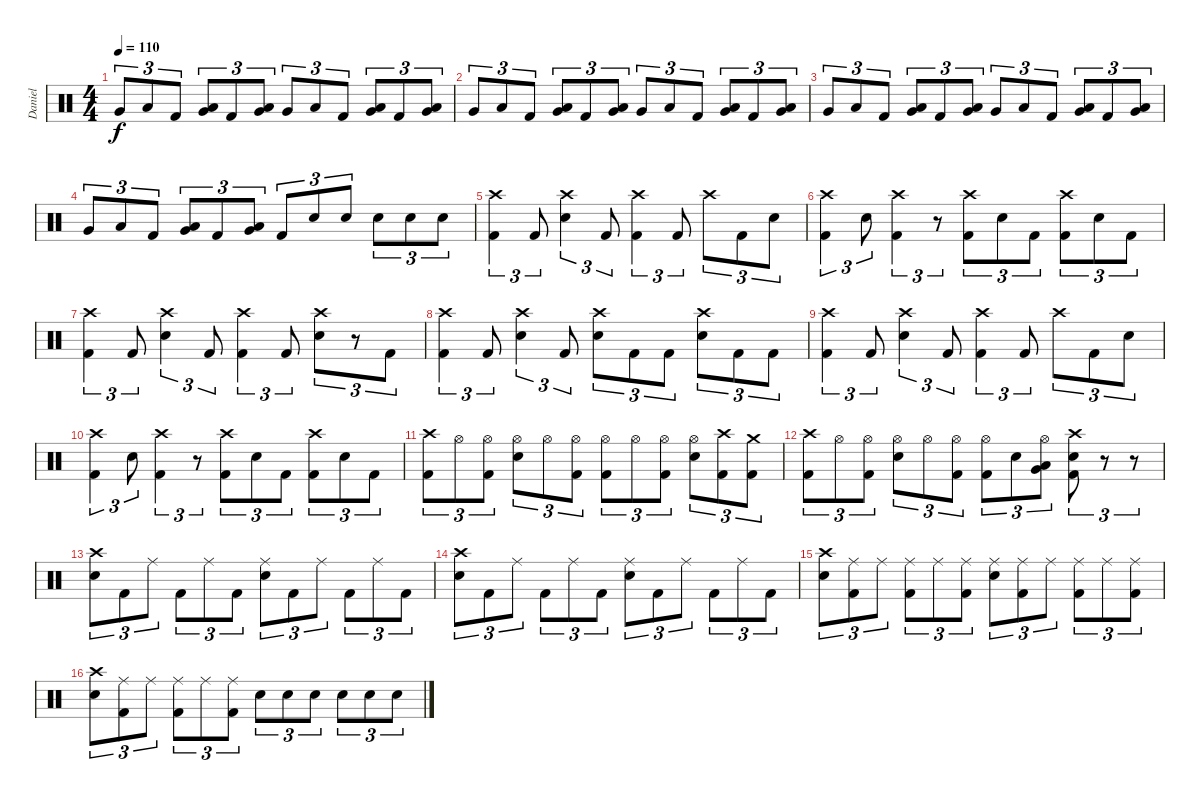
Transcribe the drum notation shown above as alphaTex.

\track ("Daniel" "Daniel") {instrument percussion}
\staff {score}
\articulation defaults
\ts (4 4)
\tempo 110
\clef neutral
\ks c "Very Low Tom (hit)".8{tu (3 2) dy f} "Low Floor Tom (hit)".8{tu (3 2)} "Kick (hit) 2".8{tu (3 2)}
("Very Low Tom (hit)" "Low Floor Tom (hit)").8{tu (3 2) bd 120} "Kick (hit) 2".8{tu (3 2)} ("Very Low Tom (hit)" "Low Floor Tom (hit)").8{tu (3 2) bd 120} "Very Low Tom (hit)".8{tu (3 2)} "Low Floor Tom (hit)".8{tu (3 2)} "Kick (hit) 2".8{tu (3 2)} ("Very Low Tom (hit)" "Low Floor Tom (hit)").8{tu (3 2) bd 120} "Kick (hit) 2".8{tu (3 2)} ("Very Low Tom (hit)" "Low Floor Tom (hit)").8{tu (3 2) bd 120} |
"Very Low Tom (hit)".8{tu (3 2)} "Low Floor Tom (hit)".8{tu (3 2)} "Kick (hit) 2".8{tu (3 2)} ("Very Low Tom (hit)" "Low Floor Tom (hit)").8{tu (3 2) bd 120} "Kick (hit) 2".8{tu (3 2)} ("Very Low Tom (hit)" "Low Floor Tom (hit)").8{tu (3 2) bd 120} "Very Low Tom (hit)".8{tu (3 2)} "Low Floor Tom (hit)".8{tu (3 2)} "Kick (hit) 2".8{tu (3 2)} ("Very Low Tom (hit)" "Low Floor Tom (hit)").8{tu (3 2) bd 120} "Kick (hit) 2".8{tu (3 2)} ("Very Low Tom (hit)" "Low Floor Tom (hit)").8{tu (3 2) bd 120} |
"Very Low Tom (hit)".8{tu (3 2)} "Low Floor Tom (hit)".8{tu (3 2)} "Kick (hit) 2".8{tu (3 2)} ("Very Low Tom (hit)" "Low Floor Tom (hit)").8{tu (3 2) bd 120} "Kick (hit) 2".8{tu (3 2)} ("Very Low Tom (hit)" "Low Floor Tom (hit)").8{tu (3 2) bd 120} "Very Low Tom (hit)".8{tu (3 2)} "Low Floor Tom (hit)".8{tu (3 2)} "Kick (hit) 2".8{tu (3 2)} ("Very Low Tom (hit)" "Low Floor Tom (hit)").8{tu (3 2) bd 120} "Kick (hit) 2".8{tu (3 2)} ("Very Low Tom (hit)" "Low Floor Tom (hit)").8{tu (3 2) bd 120} |
"Very Low Tom (hit)".8{tu (3 2)} "Low Floor Tom (hit)".8{tu (3 2)} "Kick (hit) 2".8{tu (3 2)} ("Very Low Tom (hit)" "Low Floor Tom (hit)").8{tu (3 2) bd 120} "Kick (hit) 2".8{tu (3 2)} ("Very Low Tom (hit)" "Low Floor Tom (hit)").8{tu (3 2) bd 120} "Kick (hit) 2".8{tu (3 2)} "Electric Snare (hit)".8{tu (3 2)} "Electric Snare (hit)".8{tu (3 2)} "Electric Snare (hit)".8{tu (3 2)} "Electric Snare (hit)".8{tu (3 2)} "Electric Snare (hit)".8{tu (3 2)} |
("Crash high (hit)" "Kick (hit) 2").4{tu (3 2)} "Kick (hit) 2".8{tu (3 2)} ("Crash high (hit)" "Electric Snare (hit)").4{tu (3 2)} "Kick (hit) 2".8{tu (3 2)} ("Crash high (hit)" "Kick (hit) 2").4{tu (3 2)} "Kick (hit) 2".8{tu (3 2)} "Crash high (hit)".8{tu (3 2)} "Kick (hit) 2".8{tu (3 2)} "Electric Snare (hit)".8{tu (3 2)} |
("Crash high (hit)" "Kick (hit) 2").4{tu (3 2)} "Electric Snare (hit)".8{tu (3 2)} ("Crash high (hit)" "Kick (hit) 2").4{tu (3 2)} r.8{tu (3 2)} ("Crash high (hit)" "Kick (hit) 2").8{tu (3 2)} "Electric Snare (hit)".8{tu (3 2)} "Kick (hit) 2".8{tu (3 2)} ("Crash high (hit)" "Kick (hit) 2").8{tu (3 2)} "Electric Snare (hit)".8{tu (3 2)} "Kick (hit) 2".8{tu (3 2)} |
("Crash high (hit)" "Kick (hit) 2").4{tu (3 2)} "Kick (hit) 2".8{tu (3 2)} ("Crash high (hit)" "Electric Snare (hit)").4{tu (3 2)} "Kick (hit) 2".8{tu (3 2)} ("Crash high (hit)" "Kick (hit) 2").4{tu (3 2)} "Kick (hit) 2".8{tu (3 2)} ("Crash high (hit)" "Electric Snare (hit)").8{tu (3 2)} r.8{tu (3 2)} "Kick (hit) 2".8{tu (3 2)} |
("Crash high (hit)" "Kick (hit) 2").4{tu (3 2)} "Kick (hit) 2".8{tu (3 2)} ("Crash high (hit)" "Electric Snare (hit)").4{tu (3 2)} "Kick (hit) 2".8{tu (3 2)} ("Crash high (hit)" "Electric Snare (hit)").8{tu (3 2)} "Kick (hit) 2".8{tu (3 2)} "Kick (hit) 2".8{tu (3 2)} ("Crash high (hit)" "Electric Snare (hit)").8{tu (3 2)} "Kick (hit) 2".8{tu (3 2)} "Kick (hit) 2".8{tu (3 2)} |
("Crash high (hit)" "Kick (hit) 2").4{tu (3 2)} "Kick (hit) 2".8{tu (3 2)} ("Crash high (hit)" "Electric Snare (hit)").4{tu (3 2)} "Kick (hit) 2".8{tu (3 2)} ("Crash high (hit)" "Kick (hit) 2").4{tu (3 2)} "Kick (hit) 2".8{tu (3 2)} "Crash high (hit)".8{tu (3 2)} "Kick (hit) 2".8{tu (3 2)} "Electric Snare (hit)".8{tu (3 2)} |
("Crash high (hit)" "Kick (hit) 2").4{tu (3 2)} "Electric Snare (hit)".8{tu (3 2)} ("Crash high (hit)" "Kick (hit) 2").4{tu (3 2)} r.8{tu (3 2)} ("Crash high (hit)" "Kick (hit) 2").8{tu (3 2)} "Electric Snare (hit)".8{tu (3 2)} "Kick (hit) 2".8{tu (3 2)} ("Crash high (hit)" "Kick (hit) 2").8{tu (3 2)} "Electric Snare (hit)".8{tu (3 2)} "Kick (hit) 2".8{tu (3 2)} |
("Crash high (hit)" "Kick (hit) 2").8{tu (3 2)} "Hi-Hat (open)".8{tu (3 2)} ("Hi-Hat (open)" "Kick (hit) 2").8{tu (3 2)} ("Hi-Hat (open)" "Electric Snare (hit)").8{tu (3 2)} "Hi-Hat (open)".8{tu (3 2)} ("Hi-Hat (open)" "Kick (hit) 2").8{tu (3 2)} ("Hi-Hat (open)" "Kick (hit) 2").8{tu (3 2)} "Hi-Hat (open)".8{tu (3 2)} ("Hi-Hat (open)" "Kick (hit) 2").8{tu (3 2)} ("Hi-Hat (open)" "Electric Snare (hit)").8{tu (3 2)} ("Crash high (hit)" "Kick (hit) 2").8{tu (3 2)} ("Crash medium (hit)" "Kick (hit) 2").8{tu (3 2)} |
("Crash high (hit)" "Kick (hit) 2").8{tu (3 2)} "Hi-Hat (open)".8{tu (3 2)} ("Hi-Hat (open)" "Kick (hit) 2").8{tu (3 2)} ("Hi-Hat (open)" "Electric Snare (hit)").8{tu (3 2)} "Hi-Hat (open)".8{tu (3 2)} ("Hi-Hat (open)" "Kick (hit) 2").8{tu (3 2)} ("Hi-Hat (open)" "Kick (hit) 2").8{tu (3 2)} "Electric Snare (hit)".8{tu (3 2)} ("Hi-Hat (open)" "Low Tom (hit)" "Very Low Tom (hit)").8{tu (3 2)} ("Crash high (hit)" "Kick (hit) 2" "Electric Snare (hit)").8{tu (3 2)} r.8{tu (3 2)} r.8{tu (3 2)} |
("Crash high (hit)" "Electric Snare (hit)").8{tu (3 2)} "Kick (hit) 2".8{tu (3 2)} "Ride (middle)".8{tu (3 2)} "Kick (hit) 2".8{tu (3 2)} "Ride (middle)".8{tu (3 2)} "Kick (hit) 2".8{tu (3 2)} ("Ride (middle)" "Electric Snare (hit)").8{tu (3 2)} "Kick (hit) 2".8{tu (3 2)} "Ride (middle)".8{tu (3 2)} "Kick (hit) 2".8{tu (3 2)} "Ride (middle)".8{tu (3 2)} "Kick (hit) 2".8{tu (3 2)} |
("Crash high (hit)" "Electric Snare (hit)").8{tu (3 2)} "Kick (hit) 2".8{tu (3 2)} "Ride (middle)".8{tu (3 2)} "Kick (hit) 2".8{tu (3 2)} "Ride (middle)".8{tu (3 2)} "Kick (hit) 2".8{tu (3 2)} ("Ride (middle)" "Electric Snare (hit)").8{tu (3 2)} "Kick (hit) 2".8{tu (3 2)} "Ride (middle)".8{tu (3 2)} "Kick (hit) 2".8{tu (3 2)} "Ride (middle)".8{tu (3 2)} "Kick (hit) 2".8{tu (3 2)} |
("Crash high (hit)" "Electric Snare (hit)").8{tu (3 2)} ("Ride (middle)" "Kick (hit) 2").8{tu (3 2)} "Ride (middle)".8{tu (3 2)} ("Ride (middle)" "Kick (hit) 2").8{tu (3 2)} "Ride (middle)".8{tu (3 2)} ("Ride (middle)" "Kick (hit) 2").8{tu (3 2)} ("Ride (middle)" "Electric Snare (hit)").8{tu (3 2)} ("Ride (middle)" "Kick (hit) 2").8{tu (3 2)} "Ride (middle)".8{tu (3 2)} ("Ride (middle)" "Kick (hit) 2").8{tu (3 2)} "Ride (middle)".8{tu (3 2)} ("Ride (middle)" "Kick (hit) 2").8{tu (3 2)} |
("Crash high (hit)" "Electric Snare (hit)").8{tu (3 2)} ("Ride (middle)" "Kick (hit) 2").8{tu (3 2)} "Ride (middle)".8{tu (3 2)} ("Ride (middle)" "Kick (hit) 2").8{tu (3 2)} "Ride (middle)".8{tu (3 2)} ("Ride (middle)" "Kick (hit) 2").8{tu (3 2)} "Electric Snare (hit)".8{tu (3 2)} "Electric Snare (hit)".8{tu (3 2)} "Electric Snare (hit)".8{tu (3 2)} "Electric Snare (hit)".8{tu (3 2)} "Electric Snare (hit)".8{tu (3 2)} "Electric Snare (hit)".8{tu (3 2)}
